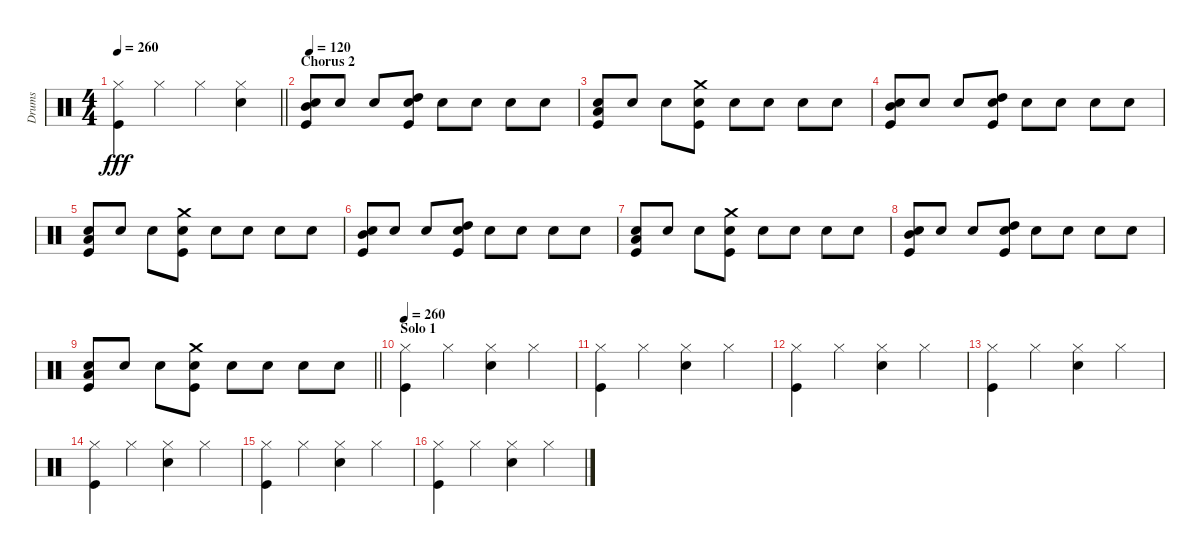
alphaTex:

\track ("Drums" "Drums") {instrument percussion}
\staff {score}
\articulation defaults
\ts (4 4)
\tempo 260
\clef neutral
\barLineRight lightlight
\ks c
("Hi-Hat (closed)" "Kick (hit)").4{dy fff} "Hi-Hat (closed)".4 "Hi-Hat (closed)".4 ("Hi-Hat (closed)" "Snare (hit) 2").4 |
\section ("" "Chorus 2")
\tempo 120
("Snare (hit) 2" "Mid Tom (hit)" "Kick (hit)").8 "Snare (hit) 2".8 "Snare (hit) 2".8 ("Snare (hit) 2" "High Tom (hit)" "Kick (hit)").8 "Snare (hit) 2".8 "Snare (hit) 2".8 "Snare (hit) 2".8 "Snare (hit) 2".8 |
("Snare (hit) 2" "Low Floor Tom (hit)" "Kick (hit)").8 "Snare (hit) 2".8 "Snare (hit) 2".8 ("Snare (hit) 2" "Crash medium (hit)" "Kick (hit)").8 "Snare (hit) 2".8 "Snare (hit) 2".8 "Snare (hit) 2".8 "Snare (hit) 2".8 |
("Snare (hit) 2" "Mid Tom (hit)" "Kick (hit)").8 "Snare (hit) 2".8 "Snare (hit) 2".8 ("Snare (hit) 2" "High Tom (hit)" "Kick (hit)").8 "Snare (hit) 2".8 "Snare (hit) 2".8 "Snare (hit) 2".8 "Snare (hit) 2".8 |
("Snare (hit) 2" "Low Floor Tom (hit)" "Kick (hit)").8 "Snare (hit) 2".8 "Snare (hit) 2".8 ("Snare (hit) 2" "Crash medium (hit)" "Kick (hit)").8 "Snare (hit) 2".8 "Snare (hit) 2".8 "Snare (hit) 2".8 "Snare (hit) 2".8 |
("Snare (hit) 2" "Mid Tom (hit)" "Kick (hit)").8 "Snare (hit) 2".8 "Snare (hit) 2".8 ("Snare (hit) 2" "High Tom (hit)" "Kick (hit)").8 "Snare (hit) 2".8 "Snare (hit) 2".8 "Snare (hit) 2".8 "Snare (hit) 2".8 |
("Snare (hit) 2" "Low Floor Tom (hit)" "Kick (hit)").8 "Snare (hit) 2".8 "Snare (hit) 2".8 ("Snare (hit) 2" "Crash medium (hit)" "Kick (hit)").8 "Snare (hit) 2".8 "Snare (hit) 2".8 "Snare (hit) 2".8 "Snare (hit) 2".8 |
("Snare (hit) 2" "Mid Tom (hit)" "Kick (hit)").8 "Snare (hit) 2".8 "Snare (hit) 2".8 ("Snare (hit) 2" "High Tom (hit)" "Kick (hit)").8 "Snare (hit) 2".8 "Snare (hit) 2".8 "Snare (hit) 2".8 "Snare (hit) 2".8 |
\barLineRight lightlight
("Snare (hit) 2" "Low Floor Tom (hit)" "Kick (hit)").8 "Snare (hit) 2".8 "Snare (hit) 2".8 ("Snare (hit) 2" "Crash medium (hit)" "Kick (hit)").8 "Snare (hit) 2".8 "Snare (hit) 2".8 "Snare (hit) 2".8 "Snare (hit) 2".8 |
\section ("" "Solo 1")
\tempo 260
("Hi-Hat (closed)" "Kick (hit)").4 "Hi-Hat (closed)".4 ("Hi-Hat (closed)" "Snare (hit) 2").4 "Hi-Hat (closed)".4 |
("Hi-Hat (closed)" "Kick (hit)").4 "Hi-Hat (closed)".4 ("Hi-Hat (closed)" "Snare (hit) 2").4 "Hi-Hat (closed)".4 |
("Hi-Hat (closed)" "Kick (hit)").4 "Hi-Hat (closed)".4 ("Hi-Hat (closed)" "Snare (hit) 2").4 "Hi-Hat (closed)".4 |
("Hi-Hat (closed)" "Kick (hit)").4 "Hi-Hat (closed)".4 ("Hi-Hat (closed)" "Snare (hit) 2").4 "Hi-Hat (closed)".4 |
("Hi-Hat (closed)" "Kick (hit)").4 "Hi-Hat (closed)".4 ("Hi-Hat (closed)" "Snare (hit) 2").4 "Hi-Hat (closed)".4 |
("Hi-Hat (closed)" "Kick (hit)").4 "Hi-Hat (closed)".4 ("Hi-Hat (closed)" "Snare (hit) 2").4 "Hi-Hat (closed)".4 |
("Hi-Hat (closed)" "Kick (hit)").4 "Hi-Hat (closed)".4 ("Hi-Hat (closed)" "Snare (hit) 2").4 "Hi-Hat (closed)".4
